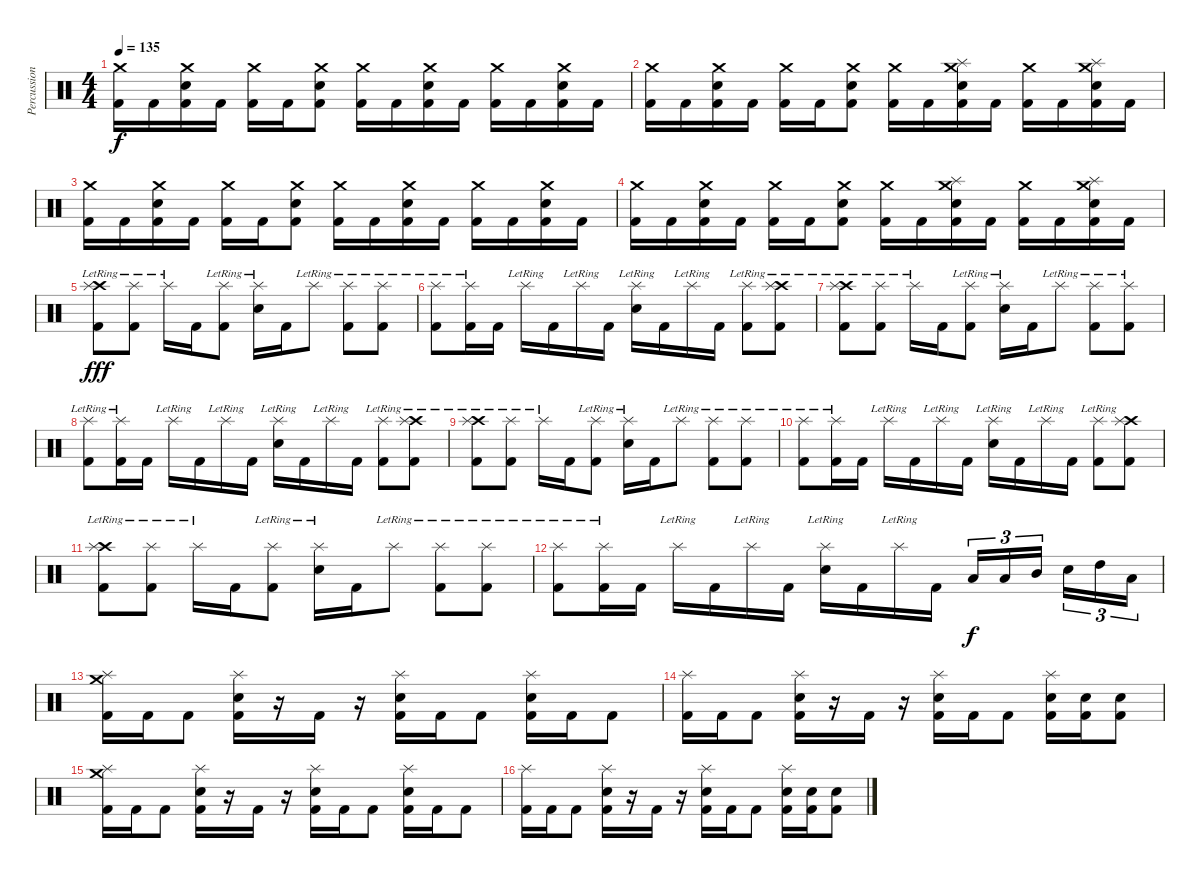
\track ("Percussion" "Percussion") {instrument percussion}
\staff {score}
\articulation defaults
\ts (4 4)
\tempo 135
\clef neutral
\ks c
("Crash medium (hit)" "Kick (hit) 2").16{dy f} "Kick (hit) 2".16 ("Crash medium (hit)" "Electric Snare (hit)" "Kick (hit) 2").16 "Kick (hit) 2".16 ("Crash medium (hit)" "Kick (hit) 2").16 "Kick (hit) 2".16 ("Crash medium (hit)" "Electric Snare (hit)" "Kick (hit) 2").8 ("Crash medium (hit)" "Kick (hit) 2").16 "Kick (hit) 2".16 ("Crash medium (hit)" "Electric Snare (hit)" "Kick (hit) 2").16 "Kick (hit) 2".16 ("Crash medium (hit)" "Kick (hit) 2").16 "Kick (hit) 2".16 ("Crash medium (hit)" "Electric Snare (hit)" "Kick (hit) 2").16 "Kick (hit) 2".16 |
("Crash medium (hit)" "Kick (hit) 2").16 "Kick (hit) 2".16 ("Crash medium (hit)" "Electric Snare (hit)" "Kick (hit) 2").16 "Kick (hit) 2".16 ("Crash medium (hit)" "Kick (hit) 2").16 "Kick (hit) 2".16 ("Crash medium (hit)" "Electric Snare (hit)" "Kick (hit) 2").8 ("Crash medium (hit)" "Kick (hit) 2").16 "Kick (hit) 2".16 ("Crash medium (hit)" "Splash (hit)" "Electric Snare (hit)" "Kick (hit) 2").16 "Kick (hit) 2".16 ("Crash medium (hit)" "Kick (hit) 2").16 "Kick (hit) 2".16 ("Crash medium (hit)" "Splash (hit)" "Electric Snare (hit)" "Kick (hit) 2").16 "Kick (hit) 2".16 |
("Crash medium (hit)" "Kick (hit) 2").16 "Kick (hit) 2".16 ("Crash medium (hit)" "Electric Snare (hit)" "Kick (hit) 2").16 "Kick (hit) 2".16 ("Crash medium (hit)" "Kick (hit) 2").16 "Kick (hit) 2".16 ("Crash medium (hit)" "Electric Snare (hit)" "Kick (hit) 2").8 ("Crash medium (hit)" "Kick (hit) 2").16 "Kick (hit) 2".16 ("Crash medium (hit)" "Electric Snare (hit)" "Kick (hit) 2").16 "Kick (hit) 2".16 ("Crash medium (hit)" "Kick (hit) 2").16 "Kick (hit) 2".16 ("Crash medium (hit)" "Electric Snare (hit)" "Kick (hit) 2").16 "Kick (hit) 2".16 |
("Crash medium (hit)" "Kick (hit) 2").16 "Kick (hit) 2".16 ("Crash medium (hit)" "Electric Snare (hit)" "Kick (hit) 2").16 "Kick (hit) 2".16 ("Crash medium (hit)" "Kick (hit) 2").16 "Kick (hit) 2".16 ("Crash medium (hit)" "Electric Snare (hit)" "Kick (hit) 2").8 ("Crash medium (hit)" "Kick (hit) 2").16 "Kick (hit) 2".16 ("Crash medium (hit)" "Splash (hit)" "Electric Snare (hit)" "Kick (hit) 2").16 "Kick (hit) 2".16 ("Crash medium (hit)" "Kick (hit) 2").16 "Kick (hit) 2".16 ("Crash medium (hit)" "Splash (hit)" "Electric Snare (hit)" "Kick (hit) 2").16 "Kick (hit) 2".16 |
("Crash high (hit)"{lr} "Splash (hit)"{lr} "Kick (hit) 2").8{dy fff} ("Splash (hit)"{lr} "Kick (hit) 2").8 "Splash (hit)"{lr}.16 "Kick (hit) 2".16 ("Splash (hit)"{lr} "Kick (hit) 2").8 ("Splash (hit)"{lr} "Electric Snare (hit)").16 "Kick (hit) 2".16 "Splash (hit)"{lr}.8 ("Splash (hit)"{lr} "Kick (hit) 2").8 ("Splash (hit)"{lr} "Kick (hit) 2").8 |
("Splash (hit)"{lr} "Kick (hit) 2").8 ("Splash (hit)"{lr} "Kick (hit) 2").16 "Kick (hit) 2".16 "Splash (hit)"{lr}.16 "Kick (hit) 2".16 "Splash (hit)"{lr}.16 "Kick (hit) 2".16 ("Splash (hit)"{lr} "Electric Snare (hit)").16 "Kick (hit) 2".16 "Splash (hit)"{lr}.16 "Kick (hit) 2".16 ("Splash (hit)"{lr} "Kick (hit) 2").8 ("Crash high (hit)" "Splash (hit)"{lr} "Kick (hit) 2").8 |
("Crash high (hit)"{lr} "Splash (hit)"{lr} "Kick (hit) 2").8 ("Splash (hit)"{lr} "Kick (hit) 2").8 "Splash (hit)"{lr}.16 "Kick (hit) 2".16 ("Splash (hit)"{lr} "Kick (hit) 2").8 ("Splash (hit)"{lr} "Electric Snare (hit)").16 "Kick (hit) 2".16 "Splash (hit)"{lr}.8 ("Splash (hit)"{lr} "Kick (hit) 2").8 ("Splash (hit)"{lr} "Kick (hit) 2").8 |
("Splash (hit)"{lr} "Kick (hit) 2").8 ("Splash (hit)"{lr} "Kick (hit) 2").16 "Kick (hit) 2".16 "Splash (hit)"{lr}.16 "Kick (hit) 2".16 "Splash (hit)"{lr}.16 "Kick (hit) 2".16 ("Splash (hit)"{lr} "Electric Snare (hit)").16 "Kick (hit) 2".16 "Splash (hit)"{lr}.16 "Kick (hit) 2".16 ("Splash (hit)"{lr} "Kick (hit) 2").8 ("Crash high (hit)" "Splash (hit)"{lr} "Kick (hit) 2").8 |
("Crash high (hit)"{lr} "Splash (hit)"{lr} "Kick (hit) 2").8 ("Splash (hit)"{lr} "Kick (hit) 2").8 "Splash (hit)"{lr}.16 "Kick (hit) 2".16 ("Splash (hit)"{lr} "Kick (hit) 2").8 ("Splash (hit)"{lr} "Electric Snare (hit)").16 "Kick (hit) 2".16 "Splash (hit)"{lr}.8 ("Splash (hit)"{lr} "Kick (hit) 2").8 ("Splash (hit)"{lr} "Kick (hit) 2").8 |
("Splash (hit)"{lr} "Kick (hit) 2").8 ("Splash (hit)"{lr} "Kick (hit) 2").16 "Kick (hit) 2".16 "Splash (hit)"{lr}.16 "Kick (hit) 2".16 "Splash (hit)"{lr}.16 "Kick (hit) 2".16 ("Splash (hit)"{lr} "Electric Snare (hit)").16 "Kick (hit) 2".16 "Splash (hit)"{lr}.16 "Kick (hit) 2".16 ("Splash (hit)"{lr} "Kick (hit) 2").8 ("Crash high (hit)" "Splash (hit)"{lr} "Kick (hit) 2").8 |
("Crash high (hit)"{lr} "Splash (hit)"{lr} "Kick (hit) 2").8 ("Splash (hit)"{lr} "Kick (hit) 2").8 "Splash (hit)"{lr}.16 "Kick (hit) 2".16 ("Splash (hit)"{lr} "Kick (hit) 2").8 ("Splash (hit)"{lr} "Electric Snare (hit)").16 "Kick (hit) 2".16 "Splash (hit)"{lr}.8 ("Splash (hit)"{lr} "Kick (hit) 2").8 ("Splash (hit)"{lr} "Kick (hit) 2").8 |
("Splash (hit)"{lr} "Kick (hit) 2").8 ("Splash (hit)"{lr} "Kick (hit) 2").16 "Kick (hit) 2".16 "Splash (hit)"{lr}.16 "Kick (hit) 2".16 "Splash (hit)"{lr}.16 "Kick (hit) 2".16 ("Splash (hit)"{lr} "Electric Snare (hit)").16 "Kick (hit) 2".16 "Splash (hit)"{lr}.16 "Kick (hit) 2".16 "Low Tom (hit)".16{tu (3 2) dy f} "Low Tom (hit)".16{tu (3 2)} "Mid Tom (hit)".16{tu (3 2) beam splitsecondary} "Electric Snare (hit)".16{tu (3 2)} "High Tom (hit)".16{tu (3 2)} "Low Tom (hit)".16{tu (3 2)} |
("Splash (hit)" "Crash medium (hit)" "Kick (hit) 2").16 "Kick (hit) 2".16 "Kick (hit) 2".8 ("Splash (hit)" "Electric Snare (hit)" "Kick (hit) 2").16 r.16 "Kick (hit) 2".16 r.16 ("Splash (hit)" "Electric Snare (hit)" "Kick (hit) 2").16 "Kick (hit) 2".16 "Kick (hit) 2".8 ("Splash (hit)" "Electric Snare (hit)" "Kick (hit) 2").16 "Kick (hit) 2".16 "Kick (hit) 2".8 |
("Splash (hit)" "Kick (hit) 2").16 "Kick (hit) 2".16 "Kick (hit) 2".8 ("Splash (hit)" "Electric Snare (hit)" "Kick (hit) 2").16 r.16 "Kick (hit) 2".16 r.16 ("Splash (hit)" "Electric Snare (hit)" "Kick (hit) 2").16 "Kick (hit) 2".16 "Kick (hit) 2".8 ("Splash (hit)" "Electric Snare (hit)" "Kick (hit) 2").16 ("Electric Snare (hit)" "Kick (hit) 2").16 ("Electric Snare (hit)" "Kick (hit) 2").8 |
("Splash (hit)" "Crash medium (hit)" "Kick (hit) 2").16 "Kick (hit) 2".16 "Kick (hit) 2".8 ("Splash (hit)" "Electric Snare (hit)" "Kick (hit) 2").16 r.16 "Kick (hit) 2".16 r.16 ("Splash (hit)" "Electric Snare (hit)" "Kick (hit) 2").16 "Kick (hit) 2".16 "Kick (hit) 2".8 ("Splash (hit)" "Electric Snare (hit)" "Kick (hit) 2").16 "Kick (hit) 2".16 "Kick (hit) 2".8 |
("Splash (hit)" "Kick (hit) 2").16 "Kick (hit) 2".16 "Kick (hit) 2".8 ("Splash (hit)" "Electric Snare (hit)" "Kick (hit) 2").16 r.16 "Kick (hit) 2".16 r.16 ("Splash (hit)" "Electric Snare (hit)" "Kick (hit) 2").16 "Kick (hit) 2".16 "Kick (hit) 2".8 ("Splash (hit)" "Electric Snare (hit)" "Kick (hit) 2").16 ("Electric Snare (hit)" "Kick (hit) 2").16 ("Electric Snare (hit)" "Kick (hit) 2").8
